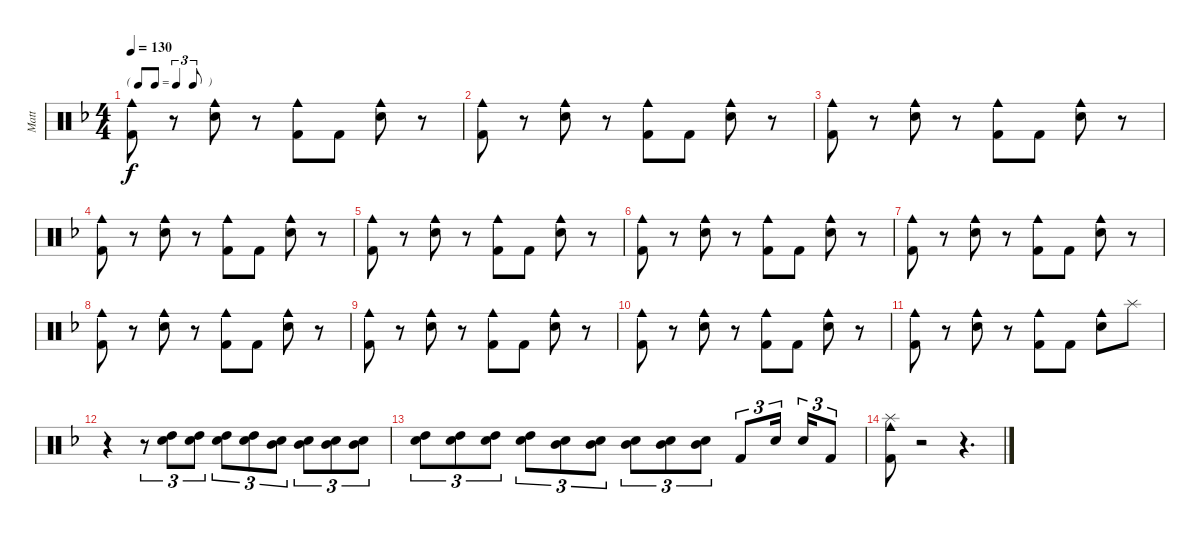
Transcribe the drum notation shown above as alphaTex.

\track ("Matt" "Matt") {instrument percussion}
\staff {score}
\articulation defaults
\ts (4 4)
\tf triplet8th
\tempo 130
\clef neutral
\ks f
("Cowbell medium (hit)" "Kick (hit) 2").8{dy f} r.8 ("Cowbell medium (hit)" "Snare (hit) 2").8 r.8 ("Cowbell medium (hit)" "Kick (hit) 2").8 "Kick (hit) 2".8 ("Cowbell medium (hit)" "Snare (hit) 2").8 r.8 |
("Cowbell medium (hit)" "Kick (hit) 2").8 r.8 ("Cowbell medium (hit)" "Snare (hit) 2").8 r.8 ("Cowbell medium (hit)" "Kick (hit) 2").8 "Kick (hit) 2".8 ("Cowbell medium (hit)" "Snare (hit) 2").8 r.8 |
("Cowbell medium (hit)" "Kick (hit) 2").8 r.8 ("Cowbell medium (hit)" "Snare (hit) 2").8 r.8 ("Cowbell medium (hit)" "Kick (hit) 2").8 "Kick (hit) 2".8 ("Cowbell medium (hit)" "Snare (hit) 2").8 r.8 |
("Cowbell medium (hit)" "Kick (hit) 2").8 r.8 ("Cowbell medium (hit)" "Snare (hit) 2").8 r.8 ("Cowbell medium (hit)" "Kick (hit) 2").8 "Kick (hit) 2".8 ("Cowbell medium (hit)" "Snare (hit) 2").8 r.8 |
("Cowbell medium (hit)" "Kick (hit) 2").8 r.8 ("Cowbell medium (hit)" "Snare (hit) 2").8 r.8 ("Cowbell medium (hit)" "Kick (hit) 2").8 "Kick (hit) 2".8 ("Cowbell medium (hit)" "Snare (hit) 2").8 r.8 |
("Cowbell medium (hit)" "Kick (hit) 2").8 r.8 ("Cowbell medium (hit)" "Snare (hit) 2").8 r.8 ("Cowbell medium (hit)" "Kick (hit) 2").8 "Kick (hit) 2".8 ("Cowbell medium (hit)" "Snare (hit) 2").8 r.8 |
("Cowbell medium (hit)" "Kick (hit) 2").8 r.8 ("Cowbell medium (hit)" "Snare (hit) 2").8 r.8 ("Cowbell medium (hit)" "Kick (hit) 2").8 "Kick (hit) 2".8 ("Cowbell medium (hit)" "Snare (hit) 2").8 r.8 |
("Cowbell medium (hit)" "Kick (hit) 2").8 r.8 ("Cowbell medium (hit)" "Snare (hit) 2").8 r.8 ("Cowbell medium (hit)" "Kick (hit) 2").8 "Kick (hit) 2".8 ("Cowbell medium (hit)" "Snare (hit) 2").8 r.8 |
("Cowbell medium (hit)" "Kick (hit) 2").8 r.8 ("Cowbell medium (hit)" "Snare (hit) 2").8 r.8 ("Cowbell medium (hit)" "Kick (hit) 2").8 "Kick (hit) 2".8 ("Cowbell medium (hit)" "Snare (hit) 2").8 r.8 |
("Cowbell medium (hit)" "Kick (hit) 2").8 r.8 ("Cowbell medium (hit)" "Snare (hit) 2").8 r.8 ("Cowbell medium (hit)" "Kick (hit) 2").8 "Kick (hit) 2".8 ("Cowbell medium (hit)" "Snare (hit) 2").8 r.8 |
("Cowbell medium (hit)" "Kick (hit) 2").8 r.8 ("Cowbell medium (hit)" "Snare (hit) 2").8 r.8 ("Cowbell medium (hit)" "Kick (hit) 2").8 "Kick (hit) 2".8 ("Cowbell medium (hit)" "Snare (hit) 2").8 "Splash (hit)".8 |
r.4 r.8{tu (3 2)} ("Snare (hit) 2" "High Tom (hit)").8{tu (3 2)} ("Snare (hit) 2" "High Tom (hit)").8{tu (3 2)} ("Snare (hit) 2" "High Tom (hit)").8{tu (3 2)} ("Snare (hit) 2" "High Tom (hit)").8{tu (3 2)} ("Snare (hit) 2" "Mid Tom (hit)").8{tu (3 2)} ("Snare (hit) 2" "Mid Tom (hit)").8{tu (3 2)} ("Snare (hit) 2" "Mid Tom (hit)").8{tu (3 2)} ("Snare (hit) 2" "Mid Tom (hit)").8{tu (3 2)} |
("Snare (hit) 2" "High Tom (hit)").8{tu (3 2)} ("Snare (hit) 2" "High Tom (hit)").8{tu (3 2)} ("Snare (hit) 2" "High Tom (hit)").8{tu (3 2)} ("Snare (hit) 2" "High Tom (hit)").8{tu (3 2)} ("Snare (hit) 2" "Mid Tom (hit)").8{tu (3 2)} ("Snare (hit) 2" "Mid Tom (hit)").8{tu (3 2)} ("Snare (hit) 2" "Mid Tom (hit)").8{tu (3 2)} ("Snare (hit) 2" "Mid Tom (hit)").8{tu (3 2)} ("Snare (hit) 2" "Mid Tom (hit)").8{tu (3 2)} "Kick (hit) 2".8{tu (3 2)} "Snare (hit) 2".16{tu (3 2) beam splitsecondary} "Snare (hit) 2".16{tu (3 2)} "Kick (hit) 2".8{tu (3 2)} |
("Cowbell medium (hit)" "Kick (hit) 2" "Splash (hit)").8 r.2 r.4{d}
